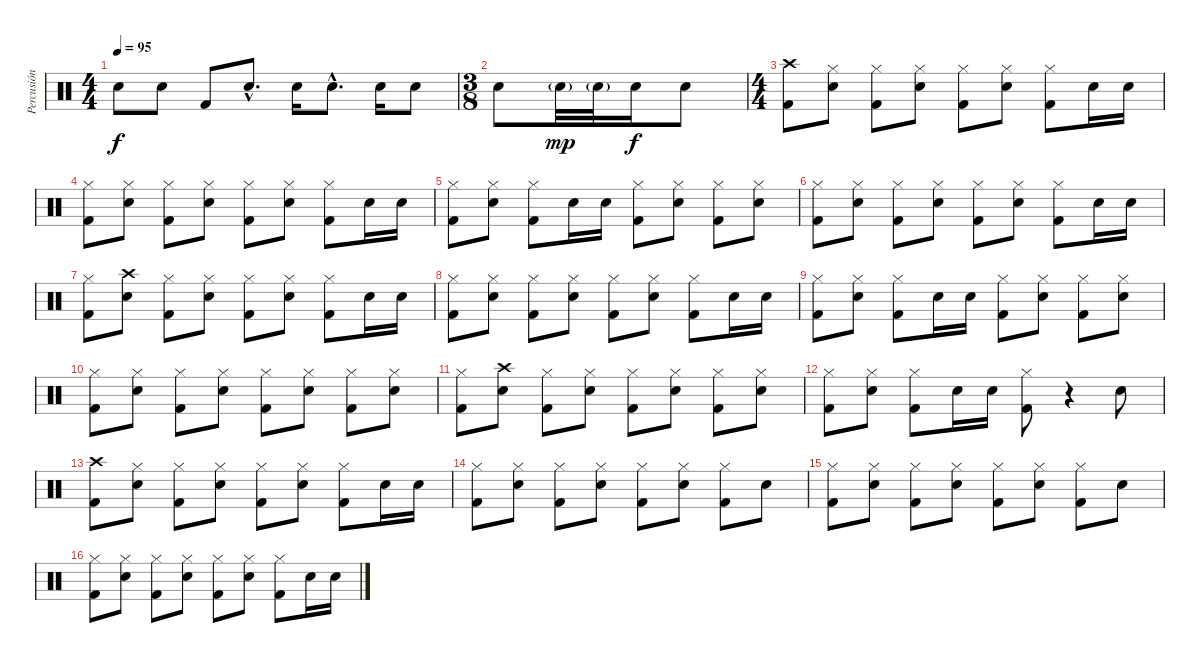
\track ("Percusión" "Percusión") {instrument percussion}
\staff {score}
\articulation defaults
\ts (4 4)
\tempo 95
\clef neutral
\ks c "Snare (hit) 2".8{dy f} "Snare (hit) 2".8 "Kick (hit) 2".8 "Snare (hit) 2"{hac}.8{d} "Snare (hit) 2".16 "Snare (hit) 2"{hac}.8{d} "Snare (hit) 2".16 "Snare (hit) 2".8
|
\ts (3 8)
"Snare (hit) 2".8 "Snare (hit) 2"{g}.32{dy mp} "Snare (hit) 2"{g}.32 "Snare (hit) 2".16{dy f} "Snare (hit) 2".8 |
\ts (4 4)
("Kick (hit) 2" "Crash high (hit)").8 ("Snare (hit) 2" "Hi-Hat (closed)").8 ("Kick (hit) 2" "Hi-Hat (closed)").8 ("Snare (hit) 2" "Hi-Hat (closed)").8 ("Kick (hit) 2" "Hi-Hat (closed)").8 ("Snare (hit) 2" "Hi-Hat (closed)").8 ("Kick (hit) 2" "Hi-Hat (closed)").8 "Snare (hit) 2".16 "Snare (hit) 2".16 |
("Kick (hit) 2" "Hi-Hat (closed)").8 ("Snare (hit) 2" "Hi-Hat (closed)").8 ("Kick (hit) 2" "Hi-Hat (closed)").8 ("Snare (hit) 2" "Hi-Hat (closed)").8 ("Kick (hit) 2" "Hi-Hat (closed)").8 ("Snare (hit) 2" "Hi-Hat (closed)").8 ("Kick (hit) 2" "Hi-Hat (closed)").8 "Snare (hit) 2".16 "Snare (hit) 2".16 |
("Kick (hit) 2" "Hi-Hat (closed)").8 ("Snare (hit) 2" "Hi-Hat (closed)").8 ("Kick (hit) 2" "Hi-Hat (closed)").8 "Snare (hit) 2".16 "Snare (hit) 2".16 ("Kick (hit) 2" "Hi-Hat (closed)").8 ("Snare (hit) 2" "Hi-Hat (closed)").8 ("Kick (hit) 2" "Hi-Hat (closed)").8 ("Snare (hit) 2" "Hi-Hat (closed)").8 |
("Kick (hit) 2" "Hi-Hat (closed)").8 ("Snare (hit) 2" "Hi-Hat (closed)").8 ("Kick (hit) 2" "Hi-Hat (closed)").8 ("Snare (hit) 2" "Hi-Hat (closed)").8 ("Kick (hit) 2" "Hi-Hat (closed)").8 ("Snare (hit) 2" "Hi-Hat (closed)").8 ("Kick (hit) 2" "Hi-Hat (closed)").8 "Snare (hit) 2".16 "Snare (hit) 2".16 |
("Kick (hit) 2" "Hi-Hat (closed)").8 ("Snare (hit) 2" "Crash high (hit)").8 ("Kick (hit) 2" "Hi-Hat (closed)").8 ("Snare (hit) 2" "Hi-Hat (closed)").8 ("Kick (hit) 2" "Hi-Hat (closed)").8 ("Snare (hit) 2" "Hi-Hat (closed)").8 ("Kick (hit) 2" "Hi-Hat (closed)").8 "Snare (hit) 2".16 "Snare (hit) 2".16 |
("Kick (hit) 2" "Hi-Hat (closed)").8 ("Snare (hit) 2" "Hi-Hat (closed)").8 ("Kick (hit) 2" "Hi-Hat (closed)").8 ("Snare (hit) 2" "Hi-Hat (closed)").8 ("Kick (hit) 2" "Hi-Hat (closed)").8 ("Snare (hit) 2" "Hi-Hat (closed)").8 ("Kick (hit) 2" "Hi-Hat (closed)").8 "Snare (hit) 2".16 "Snare (hit) 2".16 |
("Kick (hit) 2" "Hi-Hat (closed)").8 ("Snare (hit) 2" "Hi-Hat (closed)").8 ("Kick (hit) 2" "Hi-Hat (closed)").8 "Snare (hit) 2".16 "Snare (hit) 2".16 ("Kick (hit) 2" "Hi-Hat (closed)").8 ("Snare (hit) 2" "Hi-Hat (closed)").8 ("Kick (hit) 2" "Hi-Hat (closed)").8 ("Snare (hit) 2" "Hi-Hat (closed)").8 |
("Kick (hit) 2" "Hi-Hat (closed)").8 ("Snare (hit) 2" "Hi-Hat (closed)").8 ("Kick (hit) 2" "Hi-Hat (closed)").8 ("Snare (hit) 2" "Hi-Hat (closed)").8 ("Kick (hit) 2" "Hi-Hat (closed)").8 ("Snare (hit) 2" "Hi-Hat (closed)").8 ("Kick (hit) 2" "Hi-Hat (closed)").8 ("Snare (hit) 2" "Hi-Hat (closed)").8 |
("Kick (hit) 2" "Hi-Hat (closed)").8 ("Snare (hit) 2" "Crash high (hit)").8 ("Kick (hit) 2" "Hi-Hat (closed)").8 ("Snare (hit) 2" "Hi-Hat (closed)").8 ("Kick (hit) 2" "Hi-Hat (closed)").8 ("Snare (hit) 2" "Hi-Hat (closed)").8 ("Kick (hit) 2" "Hi-Hat (closed)").8 ("Snare (hit) 2" "Hi-Hat (closed)").8 |
("Kick (hit) 2" "Hi-Hat (closed)").8 ("Snare (hit) 2" "Hi-Hat (closed)").8 ("Kick (hit) 2" "Hi-Hat (closed)").8 "Snare (hit) 2".16 "Snare (hit) 2".16 ("Kick (hit) 2" "Hi-Hat (closed)").8 r.4 "Snare (hit) 2".8 |
("Kick (hit) 2" "Crash high (hit)").8 ("Snare (hit) 2" "Hi-Hat (closed)").8 ("Kick (hit) 2" "Hi-Hat (closed)").8 ("Snare (hit) 2" "Hi-Hat (closed)").8 ("Kick (hit) 2" "Hi-Hat (closed)").8 ("Snare (hit) 2" "Hi-Hat (closed)").8 ("Kick (hit) 2" "Hi-Hat (closed)").8 "Snare (hit) 2".16 "Snare (hit) 2".16 |
("Kick (hit) 2" "Hi-Hat (closed)").8 ("Snare (hit) 2" "Hi-Hat (closed)").8 ("Kick (hit) 2" "Hi-Hat (closed)").8 ("Snare (hit) 2" "Hi-Hat (closed)").8 ("Kick (hit) 2" "Hi-Hat (closed)").8 ("Snare (hit) 2" "Hi-Hat (closed)").8 ("Kick (hit) 2" "Hi-Hat (closed)").8 "Snare (hit) 2".8 |
("Kick (hit) 2" "Hi-Hat (closed)").8 ("Snare (hit) 2" "Hi-Hat (closed)").8 ("Kick (hit) 2" "Hi-Hat (closed)").8 ("Snare (hit) 2" "Hi-Hat (closed)").8 ("Kick (hit) 2" "Hi-Hat (closed)").8 ("Snare (hit) 2" "Hi-Hat (closed)").8 ("Kick (hit) 2" "Hi-Hat (closed)").8 "Snare (hit) 2".8 |
("Kick (hit) 2" "Hi-Hat (closed)").8 ("Snare (hit) 2" "Hi-Hat (closed)").8 ("Kick (hit) 2" "Hi-Hat (closed)").8 ("Snare (hit) 2" "Hi-Hat (closed)").8 ("Kick (hit) 2" "Hi-Hat (closed)").8 ("Snare (hit) 2" "Hi-Hat (closed)").8 ("Kick (hit) 2" "Hi-Hat (closed)").8 "Snare (hit) 2".16 "Snare (hit) 2".16
